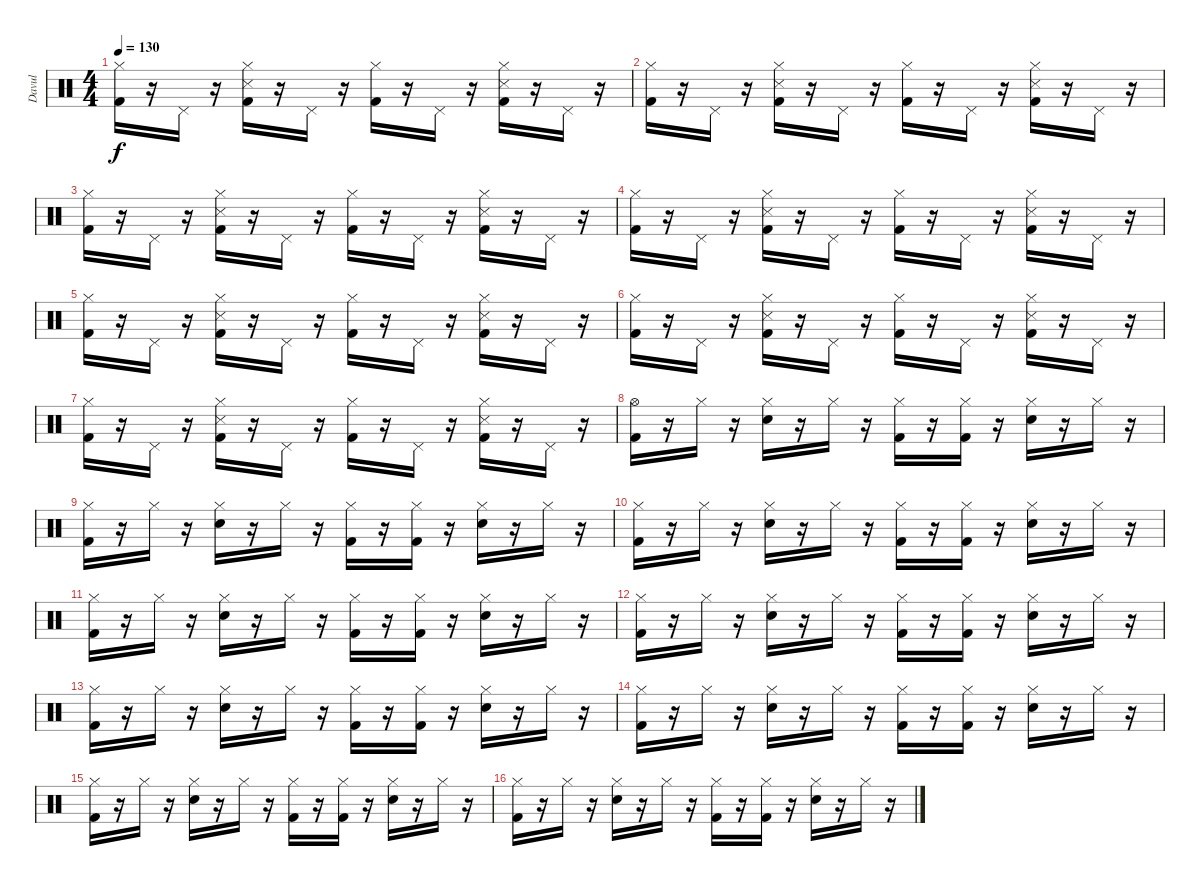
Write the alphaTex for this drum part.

\track ("Davul" "Davul") {instrument percussion}
\staff {score}
\articulation defaults
\ts (4 4)
\tempo 130
\clef neutral
\ks c
("Hi-Hat (closed)" "Kick (hit) 2").16{dy f} r.16 "Pedal Hi-Hat (hit)".16 r.16 ("Hi-Hat (closed)" "Snare (side stick) 3" "Kick (hit) 2").16 r.16 "Pedal Hi-Hat (hit)".16 r.16 ("Hi-Hat (closed)" "Kick (hit) 2").16 r.16 "Pedal Hi-Hat (hit)".16 r.16 ("Hi-Hat (closed)" "Snare (side stick) 3" "Kick (hit) 2").16 r.16 "Pedal Hi-Hat (hit)".16 r.16 |
("Hi-Hat (closed)" "Kick (hit) 2").16 r.16 "Pedal Hi-Hat (hit)".16 r.16 ("Hi-Hat (closed)" "Snare (side stick) 3" "Kick (hit) 2").16 r.16 "Pedal Hi-Hat (hit)".16 r.16 ("Hi-Hat (closed)" "Kick (hit) 2").16 r.16 "Pedal Hi-Hat (hit)".16 r.16 ("Hi-Hat (closed)" "Snare (side stick) 3" "Kick (hit) 2").16 r.16 "Pedal Hi-Hat (hit)".16 r.16 |
("Hi-Hat (closed)" "Kick (hit) 2").16 r.16 "Pedal Hi-Hat (hit)".16 r.16 ("Hi-Hat (closed)" "Snare (side stick) 3" "Kick (hit) 2").16 r.16 "Pedal Hi-Hat (hit)".16 r.16 ("Hi-Hat (closed)" "Kick (hit) 2").16 r.16 "Pedal Hi-Hat (hit)".16 r.16 ("Hi-Hat (closed)" "Snare (side stick) 3" "Kick (hit) 2").16 r.16 "Pedal Hi-Hat (hit)".16 r.16 |
("Hi-Hat (closed)" "Kick (hit) 2").16 r.16 "Pedal Hi-Hat (hit)".16 r.16 ("Hi-Hat (closed)" "Snare (side stick) 3" "Kick (hit) 2").16 r.16 "Pedal Hi-Hat (hit)".16 r.16 ("Hi-Hat (closed)" "Kick (hit) 2").16 r.16 "Pedal Hi-Hat (hit)".16 r.16 ("Hi-Hat (closed)" "Snare (side stick) 3" "Kick (hit) 2").16 r.16 "Pedal Hi-Hat (hit)".16 r.16 |
("Hi-Hat (closed)" "Kick (hit) 2").16 r.16 "Pedal Hi-Hat (hit)".16 r.16 ("Hi-Hat (closed)" "Snare (side stick) 3" "Kick (hit) 2").16 r.16 "Pedal Hi-Hat (hit)".16 r.16 ("Hi-Hat (closed)" "Kick (hit) 2").16 r.16 "Pedal Hi-Hat (hit)".16 r.16 ("Hi-Hat (closed)" "Snare (side stick) 3" "Kick (hit) 2").16 r.16 "Pedal Hi-Hat (hit)".16 r.16 |
("Hi-Hat (closed)" "Kick (hit) 2").16 r.16 "Pedal Hi-Hat (hit)".16 r.16 ("Hi-Hat (closed)" "Snare (side stick) 3" "Kick (hit) 2").16 r.16 "Pedal Hi-Hat (hit)".16 r.16 ("Hi-Hat (closed)" "Kick (hit) 2").16 r.16 "Pedal Hi-Hat (hit)".16 r.16 ("Hi-Hat (closed)" "Snare (side stick) 3" "Kick (hit) 2").16 r.16 "Pedal Hi-Hat (hit)".16 r.16 |
("Hi-Hat (closed)" "Kick (hit) 2").16 r.16 "Pedal Hi-Hat (hit)".16 r.16 ("Hi-Hat (closed)" "Snare (side stick) 3" "Kick (hit) 2").16 r.16 "Pedal Hi-Hat (hit)".16 r.16 ("Hi-Hat (closed)" "Kick (hit) 2").16 r.16 "Pedal Hi-Hat (hit)".16 r.16 ("Hi-Hat (closed)" "Snare (side stick) 3" "Kick (hit) 2").16 r.16 "Pedal Hi-Hat (hit)".16 r.16 |
("Hi-Hat (open)" "Kick (hit) 2").16 r.16 "Hi-Hat (closed)".16 r.16 ("Hi-Hat (closed)" "Snare (hit) 2").16 r.16 "Hi-Hat (closed)".16 r.16 ("Hi-Hat (closed)" "Kick (hit) 2").16 r.16 ("Hi-Hat (closed)" "Kick (hit) 2").16 r.16 ("Hi-Hat (closed)" "Snare (hit) 2").16 r.16 "Hi-Hat (closed)".16 r.16 |
("Hi-Hat (closed)" "Kick (hit) 2").16 r.16 "Hi-Hat (closed)".16 r.16 ("Hi-Hat (closed)" "Snare (hit) 2").16 r.16 "Hi-Hat (closed)".16 r.16 ("Hi-Hat (closed)" "Kick (hit) 2").16 r.16 ("Hi-Hat (closed)" "Kick (hit) 2").16 r.16 ("Hi-Hat (closed)" "Snare (hit) 2").16 r.16 "Hi-Hat (closed)".16 r.16 |
("Hi-Hat (closed)" "Kick (hit) 2").16 r.16 "Hi-Hat (closed)".16 r.16 ("Hi-Hat (closed)" "Snare (hit) 2").16 r.16 "Hi-Hat (closed)".16 r.16 ("Hi-Hat (closed)" "Kick (hit) 2").16 r.16 ("Hi-Hat (closed)" "Kick (hit) 2").16 r.16 ("Hi-Hat (closed)" "Snare (hit) 2").16 r.16 "Hi-Hat (closed)".16 r.16 |
("Hi-Hat (closed)" "Kick (hit) 2").16 r.16 "Hi-Hat (closed)".16 r.16 ("Hi-Hat (closed)" "Snare (hit) 2").16 r.16 "Hi-Hat (closed)".16 r.16 ("Hi-Hat (closed)" "Kick (hit) 2").16 r.16 ("Hi-Hat (closed)" "Kick (hit) 2").16 r.16 ("Hi-Hat (closed)" "Snare (hit) 2").16 r.16 "Hi-Hat (closed)".16 r.16 |
("Hi-Hat (closed)" "Kick (hit) 2").16 r.16 "Hi-Hat (closed)".16 r.16 ("Hi-Hat (closed)" "Snare (hit) 2").16 r.16 "Hi-Hat (closed)".16 r.16 ("Hi-Hat (closed)" "Kick (hit) 2").16 r.16 ("Hi-Hat (closed)" "Kick (hit) 2").16 r.16 ("Hi-Hat (closed)" "Snare (hit) 2").16 r.16 "Hi-Hat (closed)".16 r.16 |
("Hi-Hat (closed)" "Kick (hit) 2").16 r.16 "Hi-Hat (closed)".16 r.16 ("Hi-Hat (closed)" "Snare (hit) 2").16 r.16 "Hi-Hat (closed)".16 r.16 ("Hi-Hat (closed)" "Kick (hit) 2").16 r.16 ("Hi-Hat (closed)" "Kick (hit) 2").16 r.16 ("Hi-Hat (closed)" "Snare (hit) 2").16 r.16 "Hi-Hat (closed)".16 r.16 |
("Hi-Hat (closed)" "Kick (hit) 2").16 r.16 "Hi-Hat (closed)".16 r.16 ("Hi-Hat (closed)" "Snare (hit) 2").16 r.16 "Hi-Hat (closed)".16 r.16 ("Hi-Hat (closed)" "Kick (hit) 2").16 r.16 ("Hi-Hat (closed)" "Kick (hit) 2").16 r.16 ("Hi-Hat (closed)" "Snare (hit) 2").16 r.16 "Hi-Hat (closed)".16 r.16 |
("Hi-Hat (closed)" "Kick (hit) 2").16 r.16 "Hi-Hat (closed)".16 r.16 ("Hi-Hat (closed)" "Snare (hit) 2").16 r.16 "Hi-Hat (closed)".16 r.16 ("Hi-Hat (closed)" "Kick (hit) 2").16 r.16 ("Hi-Hat (closed)" "Kick (hit) 2").16 r.16 ("Hi-Hat (closed)" "Snare (hit) 2").16 r.16 "Hi-Hat (closed)".16 r.16 |
("Hi-Hat (closed)" "Kick (hit) 2").16 r.16 "Hi-Hat (closed)".16 r.16 ("Hi-Hat (closed)" "Snare (hit) 2").16 r.16 "Hi-Hat (closed)".16 r.16 ("Hi-Hat (closed)" "Kick (hit) 2").16 r.16 ("Hi-Hat (closed)" "Kick (hit) 2").16 r.16 ("Hi-Hat (closed)" "Snare (hit) 2").16 r.16 "Hi-Hat (closed)".16 r.16
